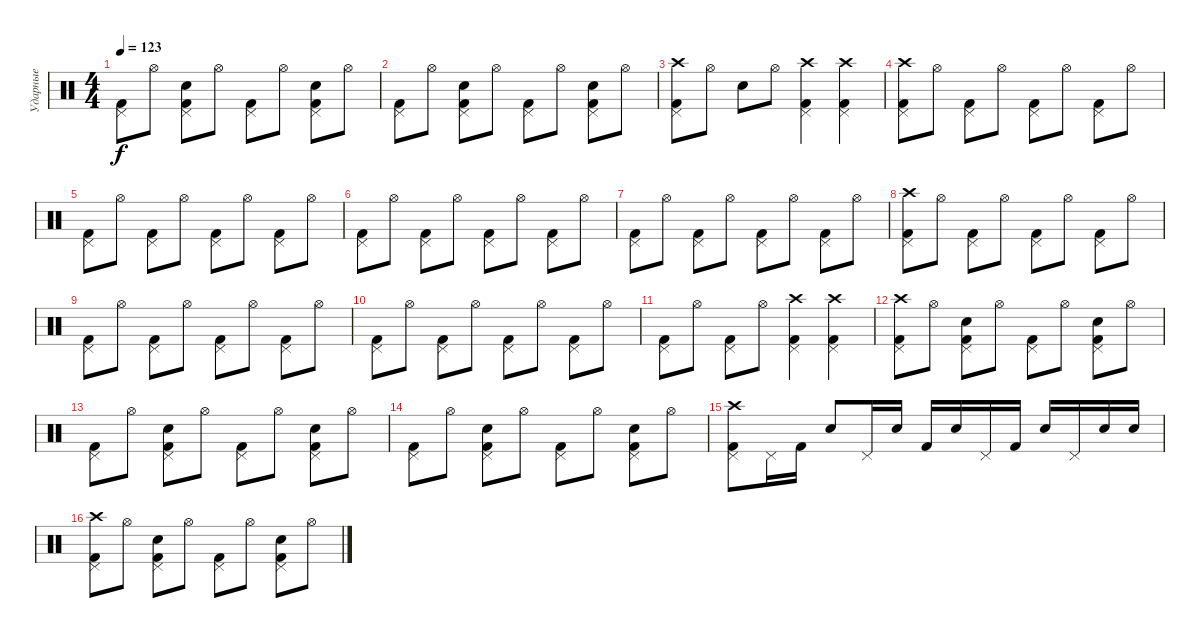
\track ("Ударные" "Ударные") {instrument percussion}
\staff {score}
\articulation defaults
\ts (4 4)
\tempo 123
\clef neutral
\ks c
("Kick (hit) 2" "Pedal Hi-Hat (hit)").8{dy f} "Hi-Hat (open)".8 ("Kick (hit) 2" "Pedal Hi-Hat (hit)" "Hand Clap (hit)").8 "Hi-Hat (open)".8 ("Kick (hit) 2" "Pedal Hi-Hat (hit)").8 "Hi-Hat (open)".8 ("Kick (hit) 2" "Pedal Hi-Hat (hit)" "Hand Clap (hit)").8 "Hi-Hat (open)".8 |
("Kick (hit) 2" "Pedal Hi-Hat (hit)").8 "Hi-Hat (open)".8 ("Kick (hit) 2" "Pedal Hi-Hat (hit)" "Hand Clap (hit)").8 "Hi-Hat (open)".8 ("Kick (hit) 2" "Pedal Hi-Hat (hit)").8 "Hi-Hat (open)".8 ("Kick (hit) 2" "Pedal Hi-Hat (hit)" "Hand Clap (hit)").8 "Hi-Hat (open)".8 |
("Kick (hit) 2" "Pedal Hi-Hat (hit)" "Crash high (hit)").8 "Hi-Hat (open)".8 "Hand Clap (hit)".8 "Hi-Hat (open)".8 ("Kick (hit) 2" "Pedal Hi-Hat (hit)" "Crash high (hit)").4 ("Kick (hit) 2" "Pedal Hi-Hat (hit)" "Crash high (hit)").4 |
("Kick (hit) 2" "Pedal Hi-Hat (hit)" "Crash high (hit)").8 "Hi-Hat (open)".8 ("Kick (hit) 2" "Pedal Hi-Hat (hit)").8 "Hi-Hat (open)".8 ("Kick (hit) 2" "Pedal Hi-Hat (hit)").8 "Hi-Hat (open)".8 ("Kick (hit) 2" "Pedal Hi-Hat (hit)").8 "Hi-Hat (open)".8 |
("Kick (hit) 2" "Pedal Hi-Hat (hit)").8 "Hi-Hat (open)".8 ("Kick (hit) 2" "Pedal Hi-Hat (hit)").8 "Hi-Hat (open)".8 ("Kick (hit) 2" "Pedal Hi-Hat (hit)").8 "Hi-Hat (open)".8 ("Kick (hit) 2" "Pedal Hi-Hat (hit)").8 "Hi-Hat (open)".8 |
("Kick (hit) 2" "Pedal Hi-Hat (hit)").8 "Hi-Hat (open)".8 ("Kick (hit) 2" "Pedal Hi-Hat (hit)").8 "Hi-Hat (open)".8 ("Kick (hit) 2" "Pedal Hi-Hat (hit)").8 "Hi-Hat (open)".8 ("Kick (hit) 2" "Pedal Hi-Hat (hit)").8 "Hi-Hat (open)".8 |
("Kick (hit) 2" "Pedal Hi-Hat (hit)").8 "Hi-Hat (open)".8 ("Kick (hit) 2" "Pedal Hi-Hat (hit)").8 "Hi-Hat (open)".8 ("Kick (hit) 2" "Pedal Hi-Hat (hit)").8 "Hi-Hat (open)".8 ("Kick (hit) 2" "Pedal Hi-Hat (hit)").8 "Hi-Hat (open)".8 |
("Kick (hit) 2" "Pedal Hi-Hat (hit)" "Crash high (hit)").8 "Hi-Hat (open)".8 ("Kick (hit) 2" "Pedal Hi-Hat (hit)").8 "Hi-Hat (open)".8 ("Kick (hit) 2" "Pedal Hi-Hat (hit)").8 "Hi-Hat (open)".8 ("Kick (hit) 2" "Pedal Hi-Hat (hit)").8 "Hi-Hat (open)".8 |
("Kick (hit) 2" "Pedal Hi-Hat (hit)").8 "Hi-Hat (open)".8 ("Kick (hit) 2" "Pedal Hi-Hat (hit)").8 "Hi-Hat (open)".8 ("Kick (hit) 2" "Pedal Hi-Hat (hit)").8 "Hi-Hat (open)".8 ("Kick (hit) 2" "Pedal Hi-Hat (hit)").8 "Hi-Hat (open)".8 |
("Kick (hit) 2" "Pedal Hi-Hat (hit)").8 "Hi-Hat (open)".8 ("Kick (hit) 2" "Pedal Hi-Hat (hit)").8 "Hi-Hat (open)".8 ("Kick (hit) 2" "Pedal Hi-Hat (hit)").8 "Hi-Hat (open)".8 ("Kick (hit) 2" "Pedal Hi-Hat (hit)").8 "Hi-Hat (open)".8 |
("Kick (hit) 2" "Pedal Hi-Hat (hit)").8 "Hi-Hat (open)".8 ("Kick (hit) 2" "Pedal Hi-Hat (hit)").8 "Hi-Hat (open)".8 ("Kick (hit) 2" "Pedal Hi-Hat (hit)" "Crash high (hit)").4 ("Kick (hit) 2" "Pedal Hi-Hat (hit)" "Crash high (hit)").4 |
("Kick (hit) 2" "Pedal Hi-Hat (hit)" "Crash high (hit)").8 "Hi-Hat (open)".8 ("Kick (hit) 2" "Pedal Hi-Hat (hit)" "Hand Clap (hit)").8 "Hi-Hat (open)".8 ("Kick (hit) 2" "Pedal Hi-Hat (hit)").8 "Hi-Hat (open)".8 ("Kick (hit) 2" "Pedal Hi-Hat (hit)" "Hand Clap (hit)").8 "Hi-Hat (open)".8 |
("Kick (hit) 2" "Pedal Hi-Hat (hit)").8 "Hi-Hat (open)".8 ("Kick (hit) 2" "Pedal Hi-Hat (hit)" "Hand Clap (hit)").8 "Hi-Hat (open)".8 ("Kick (hit) 2" "Pedal Hi-Hat (hit)").8 "Hi-Hat (open)".8 ("Kick (hit) 2" "Pedal Hi-Hat (hit)" "Hand Clap (hit)").8 "Hi-Hat (open)".8 |
("Kick (hit) 2" "Pedal Hi-Hat (hit)").8 "Hi-Hat (open)".8 ("Kick (hit) 2" "Pedal Hi-Hat (hit)" "Hand Clap (hit)").8 "Hi-Hat (open)".8 ("Kick (hit) 2" "Pedal Hi-Hat (hit)").8 "Hi-Hat (open)".8 ("Kick (hit) 2" "Pedal Hi-Hat (hit)" "Hand Clap (hit)").8 "Hi-Hat (open)".8 |
("Kick (hit) 2" "Pedal Hi-Hat (hit)" "Crash high (hit)").8 "Pedal Hi-Hat (hit)".16 "Kick (hit) 2".16 "Snare (hit) 2".8 "Pedal Hi-Hat (hit)".16 "Snare (hit) 2".16 "Kick (hit) 2".16 "Snare (hit) 2".16 "Pedal Hi-Hat (hit)".16 "Kick (hit) 2".16 "Snare (hit) 2".16 "Pedal Hi-Hat (hit)".16 "Snare (hit) 2".16 "Snare (hit) 2".16 |
("Kick (hit) 2" "Pedal Hi-Hat (hit)" "Crash high (hit)").8 "Hi-Hat (open)".8 ("Kick (hit) 2" "Pedal Hi-Hat (hit)" "Hand Clap (hit)").8 "Hi-Hat (open)".8 ("Kick (hit) 2" "Pedal Hi-Hat (hit)").8 "Hi-Hat (open)".8 ("Kick (hit) 2" "Pedal Hi-Hat (hit)" "Hand Clap (hit)").8 "Hi-Hat (open)".8
